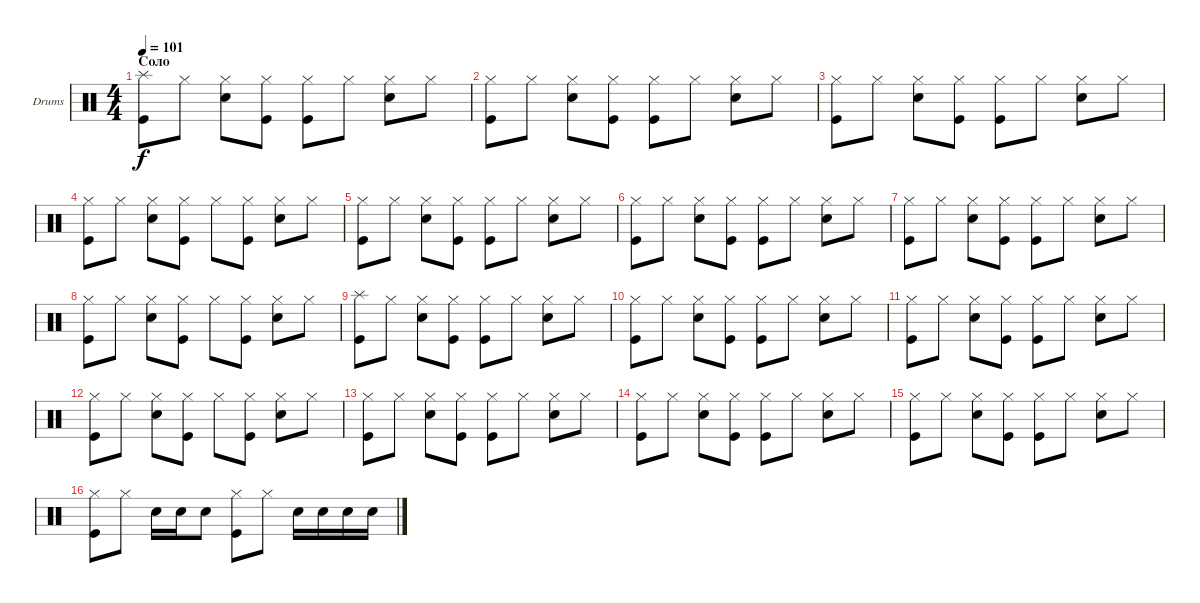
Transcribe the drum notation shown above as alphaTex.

\bracketExtendMode groupsimilarinstruments
\firstSystemTrackNameOrientation horizontal
\otherSystemsTrackNameOrientation horizontal
\track ("Drumkit" "Drums") {instrument percussion}
\staff {score}
\articulation defaults
\ts (4 4)
\section ("" "Соло")
\tempo 101
\clef neutral
\ks c
("Splash (hit)" "Kick (hit)").8{dy f} "Hi-Hat (closed)".8 ("Hi-Hat (closed)" "Snare (hit) 2").8 ("Hi-Hat (closed)" "Kick (hit)").8 ("Hi-Hat (closed)" "Kick (hit)").8 "Hi-Hat (closed)".8 ("Hi-Hat (closed)" "Snare (hit) 2").8 "Hi-Hat (closed)".8 |
("Hi-Hat (closed)" "Kick (hit)").8 "Hi-Hat (closed)".8 ("Hi-Hat (closed)" "Snare (hit) 2").8 ("Hi-Hat (closed)" "Kick (hit)").8 ("Hi-Hat (closed)" "Kick (hit)").8 "Hi-Hat (closed)".8 ("Hi-Hat (closed)" "Snare (hit) 2").8 "Hi-Hat (closed)".8 |
("Hi-Hat (closed)" "Kick (hit)").8 "Hi-Hat (closed)".8 ("Hi-Hat (closed)" "Snare (hit) 2").8 ("Hi-Hat (closed)" "Kick (hit)").8 ("Hi-Hat (closed)" "Kick (hit)").8 "Hi-Hat (closed)".8 ("Hi-Hat (closed)" "Snare (hit) 2").8 "Hi-Hat (closed)".8 |
("Hi-Hat (closed)" "Kick (hit)").8 "Hi-Hat (closed)".8 ("Hi-Hat (closed)" "Snare (hit) 2").8 ("Hi-Hat (closed)" "Kick (hit)").8 "Hi-Hat (closed)".8 ("Hi-Hat (closed)" "Kick (hit)").8 ("Hi-Hat (closed)" "Snare (hit) 2").8 "Hi-Hat (closed)".8 |
("Hi-Hat (closed)" "Kick (hit)").8 "Hi-Hat (closed)".8 ("Hi-Hat (closed)" "Snare (hit) 2").8 ("Hi-Hat (closed)" "Kick (hit)").8 ("Hi-Hat (closed)" "Kick (hit)").8 "Hi-Hat (closed)".8 ("Hi-Hat (closed)" "Snare (hit) 2").8 "Hi-Hat (closed)".8 |
("Hi-Hat (closed)" "Kick (hit)").8 "Hi-Hat (closed)".8 ("Hi-Hat (closed)" "Snare (hit) 2").8 ("Hi-Hat (closed)" "Kick (hit)").8 ("Hi-Hat (closed)" "Kick (hit)").8 "Hi-Hat (closed)".8 ("Hi-Hat (closed)" "Snare (hit) 2").8 "Hi-Hat (closed)".8 |
("Hi-Hat (closed)" "Kick (hit)").8 "Hi-Hat (closed)".8 ("Hi-Hat (closed)" "Snare (hit) 2").8 ("Hi-Hat (closed)" "Kick (hit)").8 ("Hi-Hat (closed)" "Kick (hit)").8 "Hi-Hat (closed)".8 ("Hi-Hat (closed)" "Snare (hit) 2").8 "Hi-Hat (closed)".8 |
("Hi-Hat (closed)" "Kick (hit)").8 "Hi-Hat (closed)".8 ("Hi-Hat (closed)" "Snare (hit) 2").8 ("Hi-Hat (closed)" "Kick (hit)").8 "Hi-Hat (closed)".8 ("Hi-Hat (closed)" "Kick (hit)").8 ("Hi-Hat (closed)" "Snare (hit) 2").8 "Hi-Hat (closed)".8 |
("Splash (hit)" "Kick (hit)").8 "Hi-Hat (closed)".8 ("Hi-Hat (closed)" "Snare (hit) 2").8 ("Hi-Hat (closed)" "Kick (hit)").8 ("Hi-Hat (closed)" "Kick (hit)").8 "Hi-Hat (closed)".8 ("Hi-Hat (closed)" "Snare (hit) 2").8 "Hi-Hat (closed)".8 |
("Hi-Hat (closed)" "Kick (hit)").8 "Hi-Hat (closed)".8 ("Hi-Hat (closed)" "Snare (hit) 2").8 ("Hi-Hat (closed)" "Kick (hit)").8 ("Hi-Hat (closed)" "Kick (hit)").8 "Hi-Hat (closed)".8 ("Hi-Hat (closed)" "Snare (hit) 2").8 "Hi-Hat (closed)".8 |
("Hi-Hat (closed)" "Kick (hit)").8 "Hi-Hat (closed)".8 ("Hi-Hat (closed)" "Snare (hit) 2").8 ("Hi-Hat (closed)" "Kick (hit)").8 ("Hi-Hat (closed)" "Kick (hit)").8 "Hi-Hat (closed)".8 ("Hi-Hat (closed)" "Snare (hit) 2").8 "Hi-Hat (closed)".8 |
("Hi-Hat (closed)" "Kick (hit)").8 "Hi-Hat (closed)".8 ("Hi-Hat (closed)" "Snare (hit) 2").8 ("Hi-Hat (closed)" "Kick (hit)").8 "Hi-Hat (closed)".8 ("Hi-Hat (closed)" "Kick (hit)").8 ("Hi-Hat (closed)" "Snare (hit) 2").8 "Hi-Hat (closed)".8 |
("Hi-Hat (closed)" "Kick (hit)").8 "Hi-Hat (closed)".8 ("Hi-Hat (closed)" "Snare (hit) 2").8 ("Hi-Hat (closed)" "Kick (hit)").8 ("Hi-Hat (closed)" "Kick (hit)").8 "Hi-Hat (closed)".8 ("Hi-Hat (closed)" "Snare (hit) 2").8 "Hi-Hat (closed)".8 |
("Hi-Hat (closed)" "Kick (hit)").8 "Hi-Hat (closed)".8 ("Hi-Hat (closed)" "Snare (hit) 2").8 ("Hi-Hat (closed)" "Kick (hit)").8 ("Hi-Hat (closed)" "Kick (hit)").8 "Hi-Hat (closed)".8 ("Hi-Hat (closed)" "Snare (hit) 2").8 "Hi-Hat (closed)".8 |
("Hi-Hat (closed)" "Kick (hit)").8 "Hi-Hat (closed)".8 ("Hi-Hat (closed)" "Snare (hit) 2").8 ("Hi-Hat (closed)" "Kick (hit)").8 ("Hi-Hat (closed)" "Kick (hit)").8 "Hi-Hat (closed)".8 ("Hi-Hat (closed)" "Snare (hit) 2").8 "Hi-Hat (closed)".8 |
("Hi-Hat (closed)" "Kick (hit)").8 "Hi-Hat (closed)".8 "Snare (hit) 2".16 "Snare (hit) 2".16 "Snare (hit) 2".8 ("Hi-Hat (closed)" "Kick (hit)").8 "Hi-Hat (closed)".8 "Snare (hit) 2".16 "Snare (hit) 2".16 "Snare (hit) 2".16 "Snare (hit) 2".16
